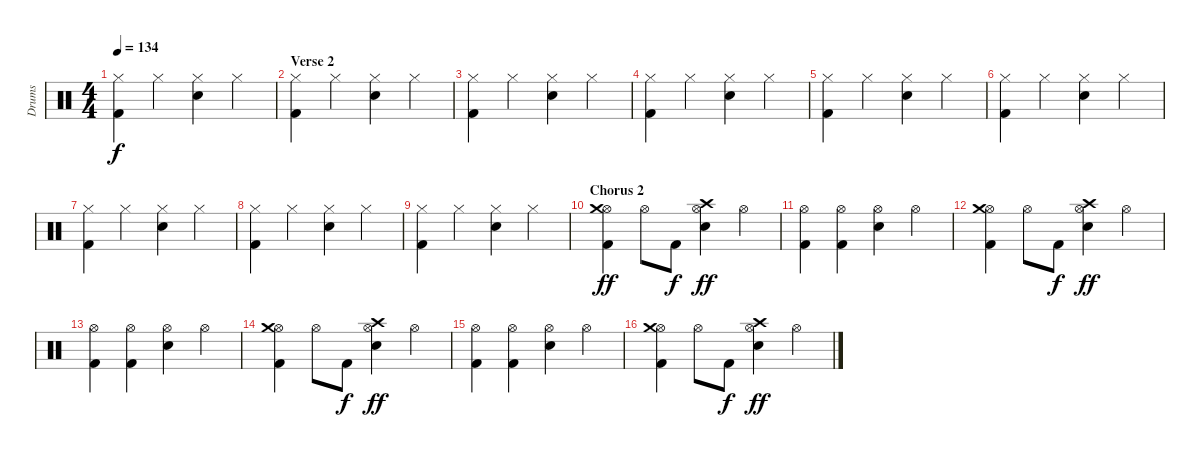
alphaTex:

\track ("Drums" "Drums") {instrument percussion}
\staff {score}
\articulation defaults
\ts (4 4)
\tempo 134
\clef neutral
\ks c
("Hi-Hat (closed)" "Kick (hit) 2").4{dy f} "Hi-Hat (closed)".4 ("Hi-Hat (closed)" "Snare (hit) 2").4 "Hi-Hat (closed)".4 |
\section ("" "Verse 2")
("Hi-Hat (closed)" "Kick (hit) 2").4 "Hi-Hat (closed)".4 ("Hi-Hat (closed)" "Snare (hit) 2").4 "Hi-Hat (closed)".4 |
("Hi-Hat (closed)" "Kick (hit) 2").4 "Hi-Hat (closed)".4 ("Hi-Hat (closed)" "Snare (hit) 2").4 "Hi-Hat (closed)".4 |
("Hi-Hat (closed)" "Kick (hit) 2").4 "Hi-Hat (closed)".4 ("Hi-Hat (closed)" "Snare (hit) 2").4 "Hi-Hat (closed)".4 |
("Hi-Hat (closed)" "Kick (hit) 2").4 "Hi-Hat (closed)".4 ("Hi-Hat (closed)" "Snare (hit) 2").4 "Hi-Hat (closed)".4 |
("Hi-Hat (closed)" "Kick (hit) 2").4 "Hi-Hat (closed)".4 ("Hi-Hat (closed)" "Snare (hit) 2").4 "Hi-Hat (closed)".4 |
("Hi-Hat (closed)" "Kick (hit) 2").4 "Hi-Hat (closed)".4 ("Hi-Hat (closed)" "Snare (hit) 2").4 "Hi-Hat (closed)".4 |
("Hi-Hat (closed)" "Kick (hit) 2").4 "Hi-Hat (closed)".4 ("Hi-Hat (closed)" "Snare (hit) 2").4 "Hi-Hat (closed)".4 |
("Hi-Hat (closed)" "Kick (hit) 2").4 "Hi-Hat (closed)".4 ("Hi-Hat (closed)" "Snare (hit) 2").4 "Hi-Hat (closed)".4 |
\section ("" "Chorus 2")
("Hi-Hat (open)" "Crash medium (hit)" "Kick (hit) 2").4{dy ff} "Hi-Hat (open)".8 "Kick (hit) 2".8{dy f} ("Hi-Hat (open)" "Crash high (hit)" "Snare (hit) 2").4{dy ff} "Hi-Hat (open)".4 |
("Hi-Hat (open)" "Kick (hit) 2").4 ("Hi-Hat (open)" "Kick (hit) 2").4 ("Hi-Hat (open)" "Snare (hit) 2").4 "Hi-Hat (open)".4 |
("Hi-Hat (open)" "Crash medium (hit)" "Kick (hit) 2").4 "Hi-Hat (open)".8 "Kick (hit) 2".8{dy f} ("Hi-Hat (open)" "Crash high (hit)" "Snare (hit) 2").4{dy ff} "Hi-Hat (open)".4 |
("Hi-Hat (open)" "Kick (hit) 2").4 ("Hi-Hat (open)" "Kick (hit) 2").4 ("Hi-Hat (open)" "Snare (hit) 2").4 "Hi-Hat (open)".4 |
("Hi-Hat (open)" "Crash medium (hit)" "Kick (hit) 2").4 "Hi-Hat (open)".8 "Kick (hit) 2".8{dy f} ("Hi-Hat (open)" "Crash high (hit)" "Snare (hit) 2").4{dy ff} "Hi-Hat (open)".4 |
("Hi-Hat (open)" "Kick (hit) 2").4 ("Hi-Hat (open)" "Kick (hit) 2").4 ("Hi-Hat (open)" "Snare (hit) 2").4 "Hi-Hat (open)".4 |
("Hi-Hat (open)" "Crash medium (hit)" "Kick (hit) 2").4 "Hi-Hat (open)".8 "Kick (hit) 2".8{dy f} ("Hi-Hat (open)" "Crash high (hit)" "Snare (hit) 2").4{dy ff} "Hi-Hat (open)".4
